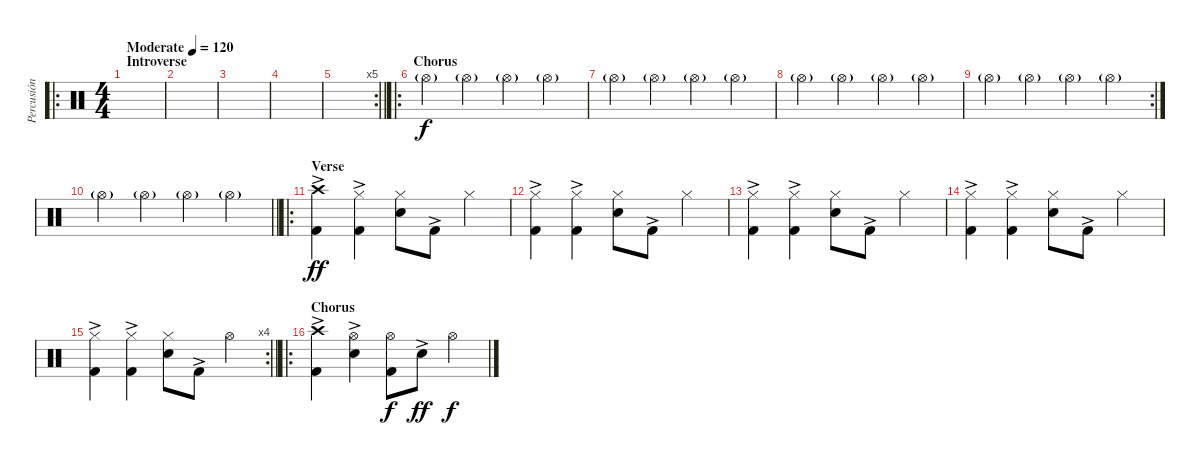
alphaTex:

\track ("Percusión" "Percusión") {instrument percussion}
\staff {score}
\articulation defaults
\ro
\ts (4 4)
\section ("" "Introverse")
\tempo (120 "Moderate")
\clef neutral
\ks c
|
|
|
|
\rc 5
\barLineRight lightlight
|
\ro
\section ("" "Chorus")
"Hi-Hat (open)"{g}.4 "Hi-Hat (open)"{g}.4 "Hi-Hat (open)"{g}.4 "Hi-Hat (open)"{g}.4 |
"Hi-Hat (open)"{g}.4 "Hi-Hat (open)"{g}.4 "Hi-Hat (open)"{g}.4 "Hi-Hat (open)"{g}.4 |
"Hi-Hat (open)"{g}.4 "Hi-Hat (open)"{g}.4 "Hi-Hat (open)"{g}.4 "Hi-Hat (open)"{g}.4 |
\rc 2 "Hi-Hat (open)"{g}.4 "Hi-Hat (open)"{g}.4 "Hi-Hat (open)"{g}.4 "Hi-Hat (open)"{g}.4
|
\barLineRight lightlight "Hi-Hat (open)"{g}.4 "Hi-Hat (open)"{g}.4 "Hi-Hat (open)"{g}.4 "Hi-Hat (open)"{g}.4
|
\ro
\section ("" "Verse")
("Kick (hit) 2"{ac} "Crash high (hit)").4{dy ff} ("Kick (hit) 2"{ac} "Hi-Hat (closed)").4 ("Snare (hit) 2" "Hi-Hat (closed)").8 "Kick (hit) 2"{ac}.8 "Hi-Hat (closed)".4 |
("Kick (hit) 2"{ac} "Hi-Hat (closed)").4 ("Kick (hit) 2"{ac} "Hi-Hat (closed)").4 ("Snare (hit) 2" "Hi-Hat (closed)").8 "Kick (hit) 2"{ac}.8 "Hi-Hat (closed)".4 |
("Kick (hit) 2"{ac} "Hi-Hat (closed)").4 ("Kick (hit) 2"{ac} "Hi-Hat (closed)").4 ("Snare (hit) 2" "Hi-Hat (closed)").8 "Kick (hit) 2"{ac}.8 "Hi-Hat (closed)".4 |
("Kick (hit) 2"{ac} "Hi-Hat (closed)").4 ("Kick (hit) 2"{ac} "Hi-Hat (closed)").4 ("Snare (hit) 2" "Hi-Hat (closed)").8 "Kick (hit) 2"{ac}.8 "Hi-Hat (closed)".4 |
\rc 4
\barLineRight lightlight
("Kick (hit) 2"{ac} "Hi-Hat (closed)").4 ("Kick (hit) 2"{ac} "Hi-Hat (closed)").4 ("Snare (hit) 2" "Hi-Hat (closed)").8 "Kick (hit) 2"{ac}.8 "Hi-Hat (open)".4 |
\ro
\section ("" "Chorus")
("Kick (hit) 2"{ac} "Crash high (hit)").4 ("Snare (hit) 2"{ac} "Hi-Hat (open)").4 ("Kick (hit) 2" "Hi-Hat (open)").8{dy f} "Snare (hit) 2"{ac}.8{dy ff} "Hi-Hat (open)".4{dy f}
